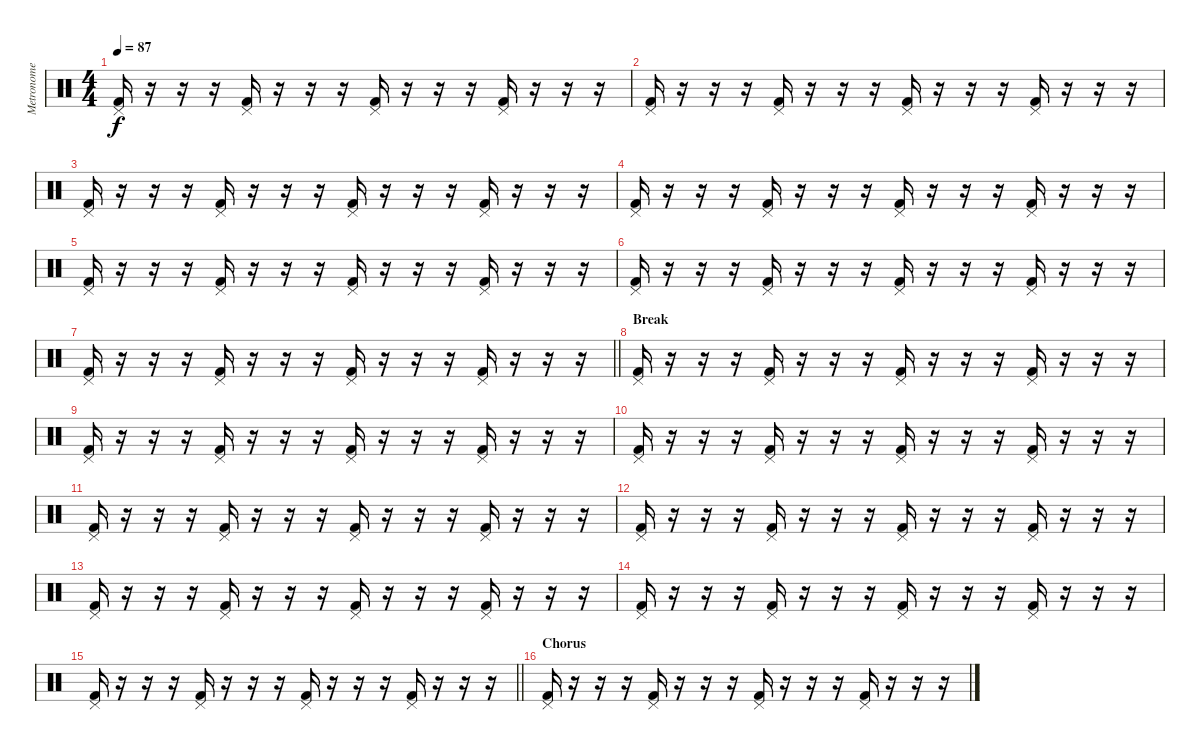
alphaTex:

\track ("Metronome" "Metronome") {mute instrument percussion}
\staff {score}
\articulation defaults
\ts (4 4)
\tempo 87
\clef neutral
\ks c
("Pedal Hi-Hat (hit)" "Kick (hit) 2").16{dy f} r.16 r.16 r.16 ("Pedal Hi-Hat (hit)" "Kick (hit) 2").16 r.16 r.16 r.16 ("Pedal Hi-Hat (hit)" "Kick (hit) 2").16 r.16 r.16 r.16 ("Pedal Hi-Hat (hit)" "Kick (hit) 2").16 r.16 r.16 r.16 |
("Pedal Hi-Hat (hit)" "Kick (hit) 2").16 r.16 r.16 r.16 ("Pedal Hi-Hat (hit)" "Kick (hit) 2").16 r.16 r.16 r.16 ("Pedal Hi-Hat (hit)" "Kick (hit) 2").16 r.16 r.16 r.16 ("Pedal Hi-Hat (hit)" "Kick (hit) 2").16 r.16 r.16 r.16 |
("Pedal Hi-Hat (hit)" "Kick (hit) 2").16 r.16 r.16 r.16 ("Pedal Hi-Hat (hit)" "Kick (hit) 2").16 r.16 r.16 r.16 ("Pedal Hi-Hat (hit)" "Kick (hit) 2").16 r.16 r.16 r.16 ("Pedal Hi-Hat (hit)" "Kick (hit) 2").16 r.16 r.16 r.16 |
("Pedal Hi-Hat (hit)" "Kick (hit) 2").16 r.16 r.16 r.16 ("Pedal Hi-Hat (hit)" "Kick (hit) 2").16 r.16 r.16 r.16 ("Pedal Hi-Hat (hit)" "Kick (hit) 2").16 r.16 r.16 r.16 ("Pedal Hi-Hat (hit)" "Kick (hit) 2").16 r.16 r.16 r.16 |
("Pedal Hi-Hat (hit)" "Kick (hit) 2").16 r.16 r.16 r.16 ("Pedal Hi-Hat (hit)" "Kick (hit) 2").16 r.16 r.16 r.16 ("Pedal Hi-Hat (hit)" "Kick (hit) 2").16 r.16 r.16 r.16 ("Pedal Hi-Hat (hit)" "Kick (hit) 2").16 r.16 r.16 r.16 |
("Pedal Hi-Hat (hit)" "Kick (hit) 2").16 r.16 r.16 r.16 ("Pedal Hi-Hat (hit)" "Kick (hit) 2").16 r.16 r.16 r.16 ("Pedal Hi-Hat (hit)" "Kick (hit) 2").16 r.16 r.16 r.16 ("Pedal Hi-Hat (hit)" "Kick (hit) 2").16 r.16 r.16 r.16 |
\barLineRight lightlight
("Pedal Hi-Hat (hit)" "Kick (hit) 2").16 r.16 r.16 r.16 ("Pedal Hi-Hat (hit)" "Kick (hit) 2").16 r.16 r.16 r.16 ("Pedal Hi-Hat (hit)" "Kick (hit) 2").16 r.16 r.16 r.16 ("Pedal Hi-Hat (hit)" "Kick (hit) 2").16 r.16 r.16 r.16 |
\section ("" "Break")
("Pedal Hi-Hat (hit)" "Kick (hit) 2").16 r.16 r.16 r.16 ("Pedal Hi-Hat (hit)" "Kick (hit) 2").16 r.16 r.16 r.16 ("Pedal Hi-Hat (hit)" "Kick (hit) 2").16 r.16 r.16 r.16 ("Pedal Hi-Hat (hit)" "Kick (hit) 2").16 r.16 r.16 r.16 |
("Pedal Hi-Hat (hit)" "Kick (hit) 2").16 r.16 r.16 r.16 ("Pedal Hi-Hat (hit)" "Kick (hit) 2").16 r.16 r.16 r.16 ("Pedal Hi-Hat (hit)" "Kick (hit) 2").16 r.16 r.16 r.16 ("Pedal Hi-Hat (hit)" "Kick (hit) 2").16 r.16 r.16 r.16 |
("Pedal Hi-Hat (hit)" "Kick (hit) 2").16 r.16 r.16 r.16 ("Pedal Hi-Hat (hit)" "Kick (hit) 2").16 r.16 r.16 r.16 ("Pedal Hi-Hat (hit)" "Kick (hit) 2").16 r.16 r.16 r.16 ("Pedal Hi-Hat (hit)" "Kick (hit) 2").16 r.16 r.16 r.16 |
("Pedal Hi-Hat (hit)" "Kick (hit) 2").16 r.16 r.16 r.16 ("Pedal Hi-Hat (hit)" "Kick (hit) 2").16 r.16 r.16 r.16 ("Pedal Hi-Hat (hit)" "Kick (hit) 2").16 r.16 r.16 r.16 ("Pedal Hi-Hat (hit)" "Kick (hit) 2").16 r.16 r.16 r.16 |
("Pedal Hi-Hat (hit)" "Kick (hit) 2").16 r.16 r.16 r.16 ("Pedal Hi-Hat (hit)" "Kick (hit) 2").16 r.16 r.16 r.16 ("Pedal Hi-Hat (hit)" "Kick (hit) 2").16 r.16 r.16 r.16 ("Pedal Hi-Hat (hit)" "Kick (hit) 2").16 r.16 r.16 r.16 |
("Pedal Hi-Hat (hit)" "Kick (hit) 2").16 r.16 r.16 r.16 ("Pedal Hi-Hat (hit)" "Kick (hit) 2").16 r.16 r.16 r.16 ("Pedal Hi-Hat (hit)" "Kick (hit) 2").16 r.16 r.16 r.16 ("Pedal Hi-Hat (hit)" "Kick (hit) 2").16 r.16 r.16 r.16 |
("Pedal Hi-Hat (hit)" "Kick (hit) 2").16 r.16 r.16 r.16 ("Pedal Hi-Hat (hit)" "Kick (hit) 2").16 r.16 r.16 r.16 ("Pedal Hi-Hat (hit)" "Kick (hit) 2").16 r.16 r.16 r.16 ("Pedal Hi-Hat (hit)" "Kick (hit) 2").16 r.16 r.16 r.16 |
\barLineRight lightlight
("Pedal Hi-Hat (hit)" "Kick (hit) 2").16 r.16 r.16 r.16 ("Pedal Hi-Hat (hit)" "Kick (hit) 2").16 r.16 r.16 r.16 ("Pedal Hi-Hat (hit)" "Kick (hit) 2").16 r.16 r.16 r.16 ("Pedal Hi-Hat (hit)" "Kick (hit) 2").16 r.16 r.16 r.16 |
\section ("" "Chorus")
("Pedal Hi-Hat (hit)" "Kick (hit) 2").16 r.16 r.16 r.16 ("Pedal Hi-Hat (hit)" "Kick (hit) 2").16 r.16 r.16 r.16 ("Pedal Hi-Hat (hit)" "Kick (hit) 2").16 r.16 r.16 r.16 ("Pedal Hi-Hat (hit)" "Kick (hit) 2").16 r.16 r.16 r.16
